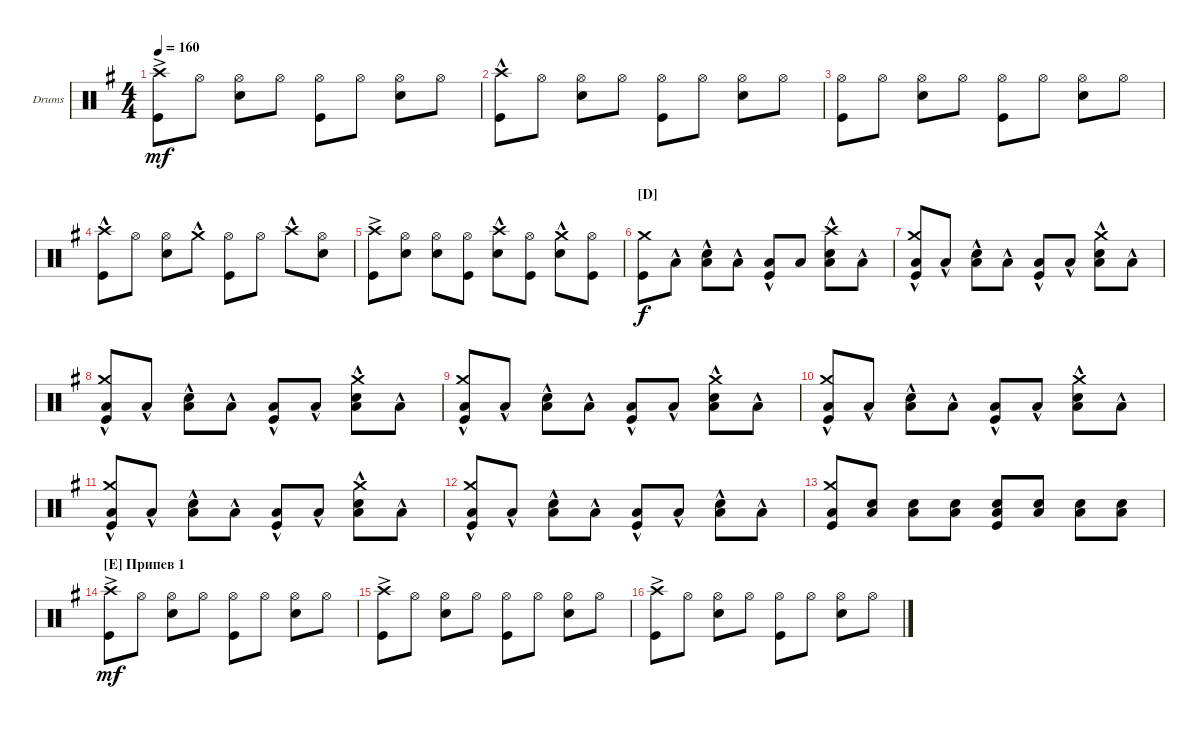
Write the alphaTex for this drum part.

\defaultSystemsLayout 4
\bracketExtendMode groupsimilarinstruments
\firstSystemTrackNameOrientation horizontal
\otherSystemsTrackNameOrientation horizontal
\track ("Drumkit" "Drums") {instrument percussion}
\staff {score}
\articulation defaults
\ts (4 4)
\tempo 160
\clef neutral
\ks eminor
("Kick (hit)" "Crash high (hit)"{ac}).8{dy mf} "Hi-Hat (open)".8 ("Hi-Hat (open)" "Snare (hit) 2").8 "Hi-Hat (open)".8 ("Hi-Hat (open)" "Kick (hit)").8 "Hi-Hat (open)".8 ("Hi-Hat (open)" "Snare (hit) 2").8 "Hi-Hat (open)".8 |
\scale
0.307692 ("Kick (hit)" "Crash high (hit)"{hac}).8 "Hi-Hat (open)".8 ("Hi-Hat (open)" "Snare (hit) 2").8 "Hi-Hat (open)".8 ("Hi-Hat (open)" "Kick (hit)").8 "Hi-Hat (open)".8 ("Hi-Hat (open)" "Snare (hit) 2").8 "Hi-Hat (open)".8 |
\scale
0.239769 ("Hi-Hat (open)" "Kick (hit)").8 "Hi-Hat (open)".8 ("Hi-Hat (open)" "Snare (hit) 2").8 "Hi-Hat (open)".8 ("Hi-Hat (open)" "Kick (hit)").8 "Hi-Hat (open)".8 ("Hi-Hat (open)" "Snare (hit) 2").8 "Hi-Hat (open)".8 |
\scale
0.222169 ("Kick (hit)" "Crash high (hit)"{hac}).8 "Hi-Hat (open)".8 ("Hi-Hat (open)" "Snare (hit) 2").8 "Crash medium (hit)"{hac}.8 ("Hi-Hat (open)" "Kick (hit)").8 "Hi-Hat (open)".8 "Crash high (hit)"{hac}.8 ("Hi-Hat (open)" "Snare (hit) 2").8 |
\scale
0.230769 ("Kick (hit)" "Crash high (hit)"{ac}).8 ("Hi-Hat (open)" "Snare (hit) 2").8 ("Hi-Hat (open)" "Snare (hit) 2").8 ("Hi-Hat (open)" "Kick (hit)").8 ("Snare (hit) 2" "Crash high (hit)"{hac}).8 ("Hi-Hat (open)" "Kick (hit)").8 ("Snare (hit) 2" "Crash medium (hit)"{hac}).8 ("Hi-Hat (open)" "Kick (hit)").8 |
\section ("D" "")
("Kick (hit)" "Crash medium (hit)").8{dy f} "Low Tom (hit)"{hac}.8 ("Snare (hit) 2" "Low Tom (hit)"{hac}).8 "Low Tom (hit)"{hac}.8 ("Kick (hit)" "Low Tom (hit)"{hac}).8 "Low Tom (hit)".8 ("Snare (hit) 2" "Low Tom (hit)"{hac} "Crash high (hit)").8 "Low Tom (hit)"{hac}.8 |
("Kick (hit)" "Low Tom (hit)"{hac} "Crash medium (hit)").8 "Low Tom (hit)"{hac}.8 ("Snare (hit) 2" "Low Tom (hit)"{hac}).8 "Low Tom (hit)"{hac}.8 ("Kick (hit)" "Low Tom (hit)"{hac}).8 "Low Tom (hit)"{hac}.8 ("Snare (hit) 2" "Low Tom (hit)"{hac} "Crash medium (hit)").8 "Low Tom (hit)"{hac}.8 |
("Kick (hit)" "Low Tom (hit)"{hac} "Crash medium (hit)").8 "Low Tom (hit)"{hac}.8 ("Snare (hit) 2" "Low Tom (hit)"{hac}).8 "Low Tom (hit)"{hac}.8 ("Kick (hit)" "Low Tom (hit)"{hac}).8 "Low Tom (hit)"{hac}.8 ("Snare (hit) 2" "Low Tom (hit)"{hac} "Crash medium (hit)").8 "Low Tom (hit)"{hac}.8 |
("Kick (hit)" "Low Tom (hit)"{hac} "Crash medium (hit)").8 "Low Tom (hit)"{hac}.8 ("Snare (hit) 2" "Low Tom (hit)"{hac}).8 "Low Tom (hit)"{hac}.8 ("Kick (hit)" "Low Tom (hit)"{hac}).8 "Low Tom (hit)"{hac}.8 ("Snare (hit) 2" "Low Tom (hit)"{hac} "Crash medium (hit)").8 "Low Tom (hit)"{hac}.8 |
("Kick (hit)" "Low Tom (hit)"{hac} "Crash medium (hit)").8 "Low Tom (hit)"{hac}.8 ("Snare (hit) 2" "Low Tom (hit)"{hac}).8 "Low Tom (hit)"{hac}.8 ("Kick (hit)" "Low Tom (hit)"{hac}).8 "Low Tom (hit)"{hac}.8 ("Snare (hit) 2" "Low Tom (hit)"{hac} "Crash medium (hit)").8 "Low Tom (hit)"{hac}.8 |
("Kick (hit)" "Low Tom (hit)"{hac} "Crash medium (hit)").8 "Low Tom (hit)"{hac}.8 ("Snare (hit) 2" "Low Tom (hit)"{hac}).8 "Low Tom (hit)"{hac}.8 ("Kick (hit)" "Low Tom (hit)"{hac}).8 "Low Tom (hit)"{hac}.8 ("Snare (hit) 2" "Low Tom (hit)"{hac} "Crash medium (hit)").8 "Low Tom (hit)"{hac}.8 |
("Kick (hit)" "Low Tom (hit)"{hac} "Crash medium (hit)").8 "Low Tom (hit)"{hac}.8 ("Snare (hit) 2" "Low Tom (hit)"{hac}).8 "Low Tom (hit)"{hac}.8 ("Kick (hit)" "Low Tom (hit)"{hac}).8 "Low Tom (hit)"{hac}.8 ("Snare (hit) 2" "Low Tom (hit)"{hac}).8 "Low Tom (hit)"{hac}.8 |
("Kick (hit)" "Low Tom (hit)" "Crash medium (hit)").8 ("Low Tom (hit)" "Snare (hit) 2").8 ("Snare (hit) 2" "Low Tom (hit)").8 ("Low Tom (hit)" "Snare (hit) 2").8 ("Kick (hit)" "Low Tom (hit)" "Snare (hit) 2").8 ("Low Tom (hit)" "Snare (hit) 2").8 ("Snare (hit) 2" "Low Tom (hit)").8 ("Low Tom (hit)" "Snare (hit) 2").8 |
\section ("E" "Припев 1")
("Kick (hit)" "Crash high (hit)"{ac}).8{dy mf} "Hi-Hat (open)".8 ("Hi-Hat (open)" "Snare (hit) 2").8 "Hi-Hat (open)".8 ("Hi-Hat (open)" "Kick (hit)").8 "Hi-Hat (open)".8 ("Hi-Hat (open)" "Snare (hit) 2").8 "Hi-Hat (open)".8 |
("Kick (hit)" "Crash high (hit)"{ac}).8 "Hi-Hat (open)".8 ("Hi-Hat (open)" "Snare (hit) 2").8 "Hi-Hat (open)".8 ("Hi-Hat (open)" "Kick (hit)").8 "Hi-Hat (open)".8 ("Hi-Hat (open)" "Snare (hit) 2").8 "Hi-Hat (open)".8 |
("Kick (hit)" "Crash high (hit)"{ac}).8 "Hi-Hat (open)".8 ("Hi-Hat (open)" "Snare (hit) 2").8 "Hi-Hat (open)".8 ("Hi-Hat (open)" "Kick (hit)").8 "Hi-Hat (open)".8 ("Hi-Hat (open)" "Snare (hit) 2").8 "Hi-Hat (open)".8
